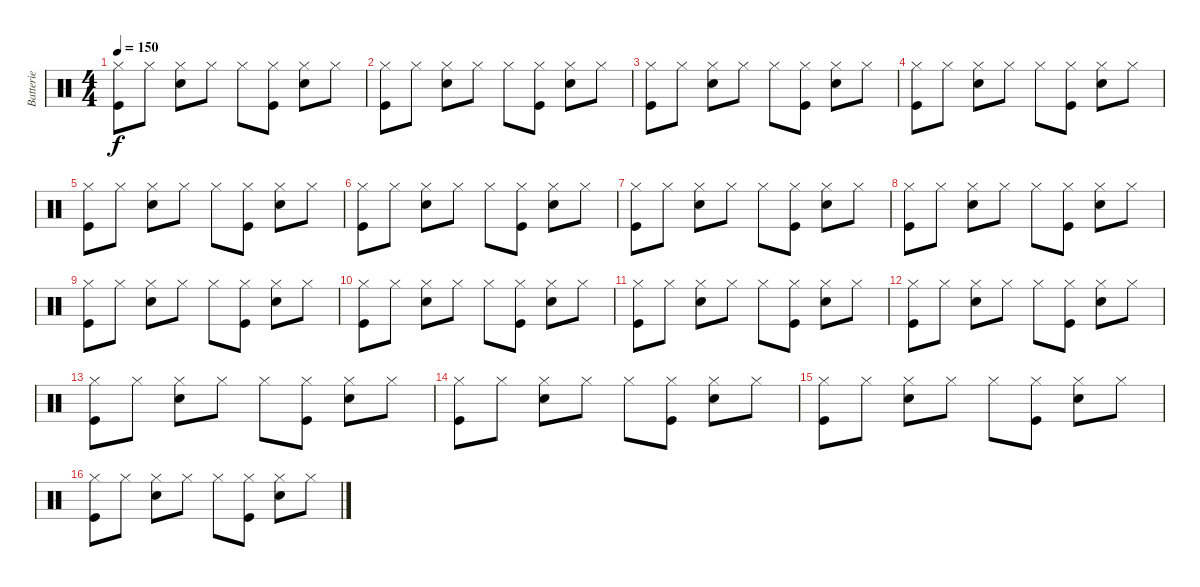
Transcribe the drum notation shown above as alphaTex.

\track ("Batterie" "Batterie") {instrument percussion}
\staff {score}
\articulation defaults
\ts (4 4)
\tempo 150
\clef neutral
\ks c
("Hi-Hat (closed)" "Kick (hit)").8{dy f} "Hi-Hat (closed)".8 ("Hi-Hat (closed)" "Snare (hit) 2").8 "Hi-Hat (closed)".8 "Hi-Hat (closed)".8 ("Hi-Hat (closed)" "Kick (hit)").8 ("Hi-Hat (closed)" "Snare (hit) 2").8 "Hi-Hat (closed)".8 |
("Hi-Hat (closed)" "Kick (hit)").8 "Hi-Hat (closed)".8 ("Hi-Hat (closed)" "Snare (hit) 2").8 "Hi-Hat (closed)".8 "Hi-Hat (closed)".8 ("Hi-Hat (closed)" "Kick (hit)").8 ("Hi-Hat (closed)" "Snare (hit) 2").8 "Hi-Hat (closed)".8 |
("Hi-Hat (closed)" "Kick (hit)").8 "Hi-Hat (closed)".8 ("Hi-Hat (closed)" "Snare (hit) 2").8 "Hi-Hat (closed)".8 "Hi-Hat (closed)".8 ("Hi-Hat (closed)" "Kick (hit)").8 ("Hi-Hat (closed)" "Snare (hit) 2").8 "Hi-Hat (closed)".8 |
("Hi-Hat (closed)" "Kick (hit)").8 "Hi-Hat (closed)".8 ("Hi-Hat (closed)" "Snare (hit) 2").8 "Hi-Hat (closed)".8 "Hi-Hat (closed)".8 ("Hi-Hat (closed)" "Kick (hit)").8 ("Hi-Hat (closed)" "Snare (hit) 2").8 "Hi-Hat (closed)".8 |
("Hi-Hat (closed)" "Kick (hit)").8 "Hi-Hat (closed)".8 ("Hi-Hat (closed)" "Snare (hit) 2").8 "Hi-Hat (closed)".8 "Hi-Hat (closed)".8 ("Hi-Hat (closed)" "Kick (hit)").8 ("Hi-Hat (closed)" "Snare (hit) 2").8 "Hi-Hat (closed)".8 |
("Hi-Hat (closed)" "Kick (hit)").8 "Hi-Hat (closed)".8 ("Hi-Hat (closed)" "Snare (hit) 2").8 "Hi-Hat (closed)".8 "Hi-Hat (closed)".8 ("Hi-Hat (closed)" "Kick (hit)").8 ("Hi-Hat (closed)" "Snare (hit) 2").8 "Hi-Hat (closed)".8 |
("Hi-Hat (closed)" "Kick (hit)").8 "Hi-Hat (closed)".8 ("Hi-Hat (closed)" "Snare (hit) 2").8 "Hi-Hat (closed)".8 "Hi-Hat (closed)".8 ("Hi-Hat (closed)" "Kick (hit)").8 ("Hi-Hat (closed)" "Snare (hit) 2").8 "Hi-Hat (closed)".8 |
("Hi-Hat (closed)" "Kick (hit)").8 "Hi-Hat (closed)".8 ("Hi-Hat (closed)" "Snare (hit) 2").8 "Hi-Hat (closed)".8 "Hi-Hat (closed)".8 ("Hi-Hat (closed)" "Kick (hit)").8 ("Hi-Hat (closed)" "Snare (hit) 2").8 "Hi-Hat (closed)".8 |
("Hi-Hat (closed)" "Kick (hit)").8 "Hi-Hat (closed)".8 ("Hi-Hat (closed)" "Snare (hit) 2").8 "Hi-Hat (closed)".8 "Hi-Hat (closed)".8 ("Hi-Hat (closed)" "Kick (hit)").8 ("Hi-Hat (closed)" "Snare (hit) 2").8 "Hi-Hat (closed)".8 |
("Hi-Hat (closed)" "Kick (hit)").8 "Hi-Hat (closed)".8 ("Hi-Hat (closed)" "Snare (hit) 2").8 "Hi-Hat (closed)".8 "Hi-Hat (closed)".8 ("Hi-Hat (closed)" "Kick (hit)").8 ("Hi-Hat (closed)" "Snare (hit) 2").8 "Hi-Hat (closed)".8 |
("Hi-Hat (closed)" "Kick (hit)").8 "Hi-Hat (closed)".8 ("Hi-Hat (closed)" "Snare (hit) 2").8 "Hi-Hat (closed)".8 "Hi-Hat (closed)".8 ("Hi-Hat (closed)" "Kick (hit)").8 ("Hi-Hat (closed)" "Snare (hit) 2").8 "Hi-Hat (closed)".8 |
("Hi-Hat (closed)" "Kick (hit)").8 "Hi-Hat (closed)".8 ("Hi-Hat (closed)" "Snare (hit) 2").8 "Hi-Hat (closed)".8 "Hi-Hat (closed)".8 ("Hi-Hat (closed)" "Kick (hit)").8 ("Hi-Hat (closed)" "Snare (hit) 2").8 "Hi-Hat (closed)".8 |
("Hi-Hat (closed)" "Kick (hit)").8 "Hi-Hat (closed)".8 ("Hi-Hat (closed)" "Snare (hit) 2").8 "Hi-Hat (closed)".8 "Hi-Hat (closed)".8 ("Hi-Hat (closed)" "Kick (hit)").8 ("Hi-Hat (closed)" "Snare (hit) 2").8 "Hi-Hat (closed)".8 |
("Hi-Hat (closed)" "Kick (hit)").8 "Hi-Hat (closed)".8 ("Hi-Hat (closed)" "Snare (hit) 2").8 "Hi-Hat (closed)".8 "Hi-Hat (closed)".8 ("Hi-Hat (closed)" "Kick (hit)").8 ("Hi-Hat (closed)" "Snare (hit) 2").8 "Hi-Hat (closed)".8 |
("Hi-Hat (closed)" "Kick (hit)").8 "Hi-Hat (closed)".8 ("Hi-Hat (closed)" "Snare (hit) 2").8 "Hi-Hat (closed)".8 "Hi-Hat (closed)".8 ("Hi-Hat (closed)" "Kick (hit)").8 ("Hi-Hat (closed)" "Snare (hit) 2").8 "Hi-Hat (closed)".8 |
("Hi-Hat (closed)" "Kick (hit)").8 "Hi-Hat (closed)".8 ("Hi-Hat (closed)" "Snare (hit) 2").8 "Hi-Hat (closed)".8 "Hi-Hat (closed)".8 ("Hi-Hat (closed)" "Kick (hit)").8 ("Hi-Hat (closed)" "Snare (hit) 2").8 "Hi-Hat (closed)".8
